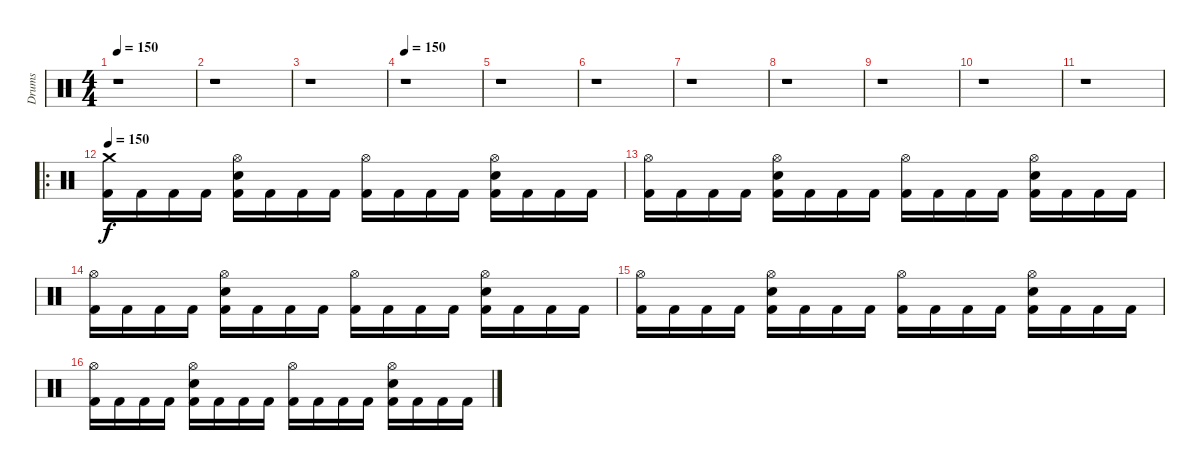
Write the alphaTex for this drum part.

\track ("Drums" "Drums") {instrument percussion}
\staff {score}
\articulation defaults
\ts (4 4)
\tempo 150
\clef neutral
\ks c
r.1{dy f} |
r.1 |
r.1 |
\tempo 150
r.1 |
r.1 |
r.1 |
r.1 |
r.1 |
r.1 |
r.1 |
r.1 |
\ro
\tempo 150
("Kick (hit) 2" "Crash medium (hit)").16 "Kick (hit) 2".16 "Kick (hit) 2".16 "Kick (hit) 2".16 ("Kick (hit) 2" "Electric Snare (hit)" "Hi-Hat (open)").16 "Kick (hit) 2".16 "Kick (hit) 2".16 "Kick (hit) 2".16 ("Kick (hit) 2" "Hi-Hat (open)").16 "Kick (hit) 2".16 "Kick (hit) 2".16 "Kick (hit) 2".16 ("Kick (hit) 2" "Electric Snare (hit)" "Hi-Hat (open)").16 "Kick (hit) 2".16 "Kick (hit) 2".16 "Kick (hit) 2".16 |
("Kick (hit) 2" "Hi-Hat (open)").16 "Kick (hit) 2".16 "Kick (hit) 2".16 "Kick (hit) 2".16 ("Kick (hit) 2" "Electric Snare (hit)" "Hi-Hat (open)").16 "Kick (hit) 2".16 "Kick (hit) 2".16 "Kick (hit) 2".16 ("Kick (hit) 2" "Hi-Hat (open)").16 "Kick (hit) 2".16 "Kick (hit) 2".16 "Kick (hit) 2".16 ("Kick (hit) 2" "Electric Snare (hit)" "Hi-Hat (open)").16 "Kick (hit) 2".16 "Kick (hit) 2".16 "Kick (hit) 2".16 |
("Kick (hit) 2" "Hi-Hat (open)").16 "Kick (hit) 2".16 "Kick (hit) 2".16 "Kick (hit) 2".16 ("Kick (hit) 2" "Electric Snare (hit)" "Hi-Hat (open)").16 "Kick (hit) 2".16 "Kick (hit) 2".16 "Kick (hit) 2".16 ("Kick (hit) 2" "Hi-Hat (open)").16 "Kick (hit) 2".16 "Kick (hit) 2".16 "Kick (hit) 2".16 ("Kick (hit) 2" "Electric Snare (hit)" "Hi-Hat (open)").16 "Kick (hit) 2".16 "Kick (hit) 2".16 "Kick (hit) 2".16 |
("Kick (hit) 2" "Hi-Hat (open)").16 "Kick (hit) 2".16 "Kick (hit) 2".16 "Kick (hit) 2".16 ("Kick (hit) 2" "Electric Snare (hit)" "Hi-Hat (open)").16 "Kick (hit) 2".16 "Kick (hit) 2".16 "Kick (hit) 2".16 ("Kick (hit) 2" "Hi-Hat (open)").16 "Kick (hit) 2".16 "Kick (hit) 2".16 "Kick (hit) 2".16 ("Kick (hit) 2" "Electric Snare (hit)" "Hi-Hat (open)").16 "Kick (hit) 2".16 "Kick (hit) 2".16 "Kick (hit) 2".16 |
("Kick (hit) 2" "Hi-Hat (open)").16 "Kick (hit) 2".16 "Kick (hit) 2".16 "Kick (hit) 2".16 ("Kick (hit) 2" "Electric Snare (hit)" "Hi-Hat (open)").16 "Kick (hit) 2".16 "Kick (hit) 2".16 "Kick (hit) 2".16 ("Kick (hit) 2" "Hi-Hat (open)").16 "Kick (hit) 2".16 "Kick (hit) 2".16 "Kick (hit) 2".16 ("Kick (hit) 2" "Electric Snare (hit)" "Hi-Hat (open)").16 "Kick (hit) 2".16 "Kick (hit) 2".16 "Kick (hit) 2".16
